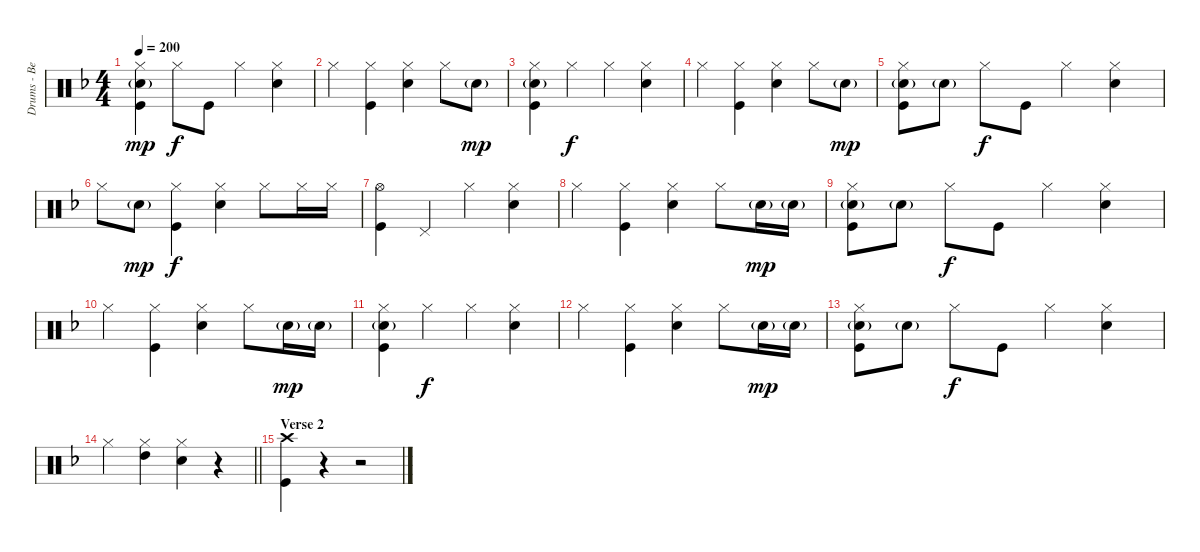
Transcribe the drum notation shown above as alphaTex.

\track ("Drums - Ben Johnston" "Drums - Be") {instrument percussion}
\staff {score}
\articulation defaults
\ts (4 4)
\tempo 200
\clef neutral
\ks f
("Hi-Hat (closed)" "Snare (hit) 2"{g} "Kick (hit)").4{dy mp} "Hi-Hat (closed)".8{dy f} "Kick (hit)".8 "Hi-Hat (closed)".4 ("Hi-Hat (closed)" "Snare (hit) 2").4 |
"Hi-Hat (closed)".4 ("Hi-Hat (closed)" "Kick (hit)").4 ("Hi-Hat (closed)" "Snare (hit) 2").4 "Hi-Hat (closed)".8 "Snare (hit) 2"{g}.8{dy mp} |
("Hi-Hat (closed)" "Snare (hit) 2"{g} "Kick (hit)").4 "Hi-Hat (closed)".4{dy f} "Hi-Hat (closed)".4 ("Hi-Hat (closed)" "Snare (hit) 2").4 |
"Hi-Hat (closed)".4 ("Hi-Hat (closed)" "Kick (hit)").4 ("Hi-Hat (closed)" "Snare (hit) 2").4 "Hi-Hat (closed)".8 "Snare (hit) 2"{g}.8{dy mp} |
("Hi-Hat (closed)" "Snare (hit) 2"{g} "Kick (hit)").8 "Snare (hit) 2"{g}.8 "Hi-Hat (closed)".8{dy f} "Kick (hit)".8 "Hi-Hat (closed)".4 ("Hi-Hat (closed)" "Snare (hit) 2").4 |
"Hi-Hat (closed)".8 "Snare (hit) 2"{g}.8{dy mp} ("Hi-Hat (closed)" "Kick (hit)").4{dy f} ("Hi-Hat (closed)" "Snare (hit) 2").4 "Hi-Hat (closed)".8 "Hi-Hat (closed)".16 "Hi-Hat (closed)".16 |
("Hi-Hat (open)" "Kick (hit)").4 "Pedal Hi-Hat (hit)".4 "Hi-Hat (closed)".4 ("Hi-Hat (closed)" "Snare (hit) 2").4 |
"Hi-Hat (closed)".4 ("Hi-Hat (closed)" "Kick (hit)").4 ("Hi-Hat (closed)" "Snare (hit) 2").4 "Hi-Hat (closed)".8 "Snare (hit) 2"{g}.16{dy mp} "Snare (hit) 2"{g}.16 |
("Hi-Hat (closed)" "Snare (hit) 2"{g} "Kick (hit)").8 "Snare (hit) 2"{g}.8 "Hi-Hat (closed)".8{dy f} "Kick (hit)".8 "Hi-Hat (closed)".4 ("Hi-Hat (closed)" "Snare (hit) 2").4 |
"Hi-Hat (closed)".4 ("Hi-Hat (closed)" "Kick (hit)").4 ("Hi-Hat (closed)" "Snare (hit) 2").4 "Hi-Hat (closed)".8 "Snare (hit) 2"{g}.16{dy mp} "Snare (hit) 2"{g}.16 |
("Hi-Hat (closed)" "Snare (hit) 2"{g} "Kick (hit)").4 "Hi-Hat (closed)".4{dy f} "Hi-Hat (closed)".4 ("Hi-Hat (closed)" "Snare (hit) 2").4 |
"Hi-Hat (closed)".4 ("Hi-Hat (closed)" "Kick (hit)").4 ("Hi-Hat (closed)" "Snare (hit) 2").4 "Hi-Hat (closed)".8 "Snare (hit) 2"{g}.16{dy mp} "Snare (hit) 2"{g}.16 |
("Hi-Hat (closed)" "Snare (hit) 2"{g} "Kick (hit)").8 "Snare (hit) 2"{g}.8 "Hi-Hat (closed)".8{dy f} "Kick (hit)".8 "Hi-Hat (closed)".4 ("Hi-Hat (closed)" "Snare (hit) 2").4 |
\barLineRight lightlight "Hi-Hat (closed)".4
("Hi-Hat (closed)" "High Tom (hit)").4 ("Hi-Hat (closed)" "Snare (hit) 2").4 r.4 |
\section ("" "Verse 2")
("Crash high (hit)" "Kick (hit)").4 r.4 r.2
